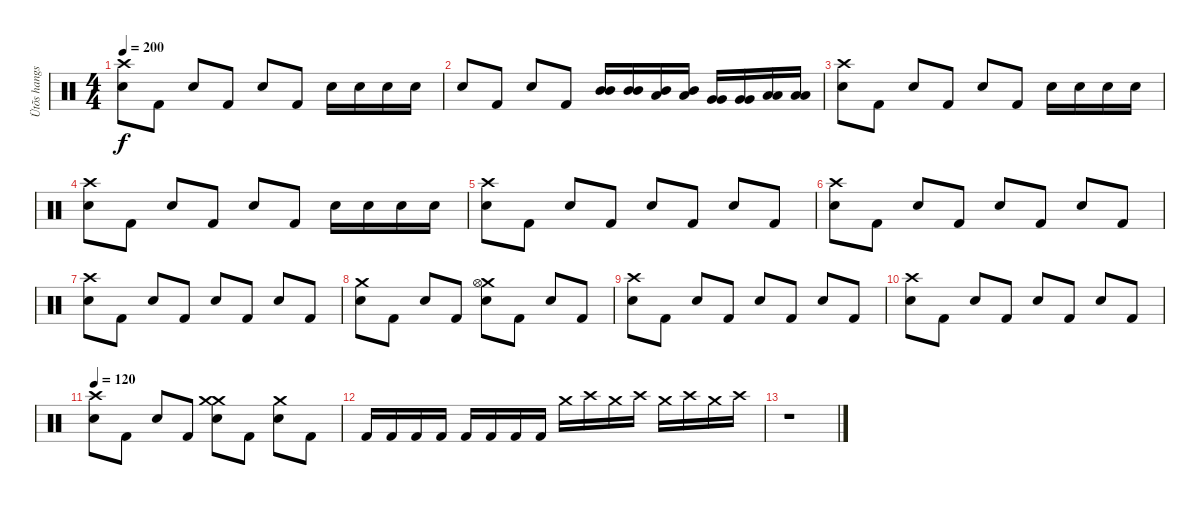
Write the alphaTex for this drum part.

\track ("Ütõs hangszer" "Ütõs hangs") {instrument percussion}
\staff {score}
\articulation defaults
\ts (4 4)
\tempo 200
\clef neutral
\ks c
("Snare (hit) 2" "Crash high (hit)").8{dy f} "Kick (hit) 2".8 "Snare (hit) 2".8 "Kick (hit) 2".8 "Snare (hit) 2".8 "Kick (hit) 2".8 "Snare (hit) 2".16 "Snare (hit) 2".16 "Snare (hit) 2".16 "Snare (hit) 2".16 |
"Snare (hit) 2".8 "Kick (hit) 2".8 "Snare (hit) 2".8 "Kick (hit) 2".8 ("Mid Tom (hit)" "Mid Tom (hit)").16 ("Mid Tom (hit)" "Mid Tom (hit)").16 ("Low Tom (hit)" "Mid Tom (hit)").16 ("Low Tom (hit)" "Mid Tom (hit)").16 ("Very Low Tom (hit)" "Very Low Tom (hit)").16 ("Very Low Tom (hit)" "Very Low Tom (hit)").16 ("Low Floor Tom (hit)" "Low Floor Tom (hit)").16 ("Low Floor Tom (hit)" "Low Floor Tom (hit)").16 |
("Snare (hit) 2" "Crash high (hit)").8 "Kick (hit) 2".8 "Snare (hit) 2".8 "Kick (hit) 2".8 "Snare (hit) 2".8 "Kick (hit) 2".8 "Snare (hit) 2".16 "Snare (hit) 2".16 "Snare (hit) 2".16 "Snare (hit) 2".16 |
("Snare (hit) 2" "Crash high (hit)").8 "Kick (hit) 2".8 "Snare (hit) 2".8 "Kick (hit) 2".8 "Snare (hit) 2".8 "Kick (hit) 2".8 "Snare (hit) 2".16 "Snare (hit) 2".16 "Snare (hit) 2".16 "Snare (hit) 2".16 |
("Snare (hit) 2" "Crash high (hit)").8 "Kick (hit) 2".8 "Snare (hit) 2".8 "Kick (hit) 2".8 "Snare (hit) 2".8 "Kick (hit) 2".8 "Snare (hit) 2".8 "Kick (hit) 2".8 |
("Snare (hit) 2" "Crash high (hit)").8 "Kick (hit) 2".8 "Snare (hit) 2".8 "Kick (hit) 2".8 "Snare (hit) 2".8 "Kick (hit) 2".8 "Snare (hit) 2".8 "Kick (hit) 2".8 |
("Snare (hit) 2" "Crash high (hit)").8 "Kick (hit) 2".8 "Snare (hit) 2".8 "Kick (hit) 2".8 "Snare (hit) 2".8 "Kick (hit) 2".8 "Snare (hit) 2".8 "Kick (hit) 2".8 |
("Snare (hit) 2" "Crash medium (hit)").8 "Kick (hit) 2".8 "Snare (hit) 2".8 "Kick (hit) 2".8 ("Crash medium (hit)" "Snare (hit) 2" "Hi-Hat (open)").8 "Kick (hit) 2".8 "Snare (hit) 2".8 "Kick (hit) 2".8 |
("Snare (hit) 2" "Crash high (hit)").8 "Kick (hit) 2".8 "Snare (hit) 2".8 "Kick (hit) 2".8 "Snare (hit) 2".8 "Kick (hit) 2".8 "Snare (hit) 2".8 "Kick (hit) 2".8 |
("Snare (hit) 2" "Crash high (hit)").8 "Kick (hit) 2".8 "Snare (hit) 2".8 "Kick (hit) 2".8 "Snare (hit) 2".8 "Kick (hit) 2".8 "Snare (hit) 2".8 "Kick (hit) 2".8 |
\tempo 120
("Snare (hit) 2" "Crash high (hit)").8 "Kick (hit) 2".8 "Snare (hit) 2".8 "Kick (hit) 2".8 ("Crash medium (hit)" "Snare (hit) 2" "Crash medium (hit)").8 "Kick (hit) 2".8 ("Snare (hit) 2" "Crash medium (hit)").8 "Kick (hit) 2".8 |
"Kick (hit) 2".16 "Kick (hit) 2".16 "Kick (hit) 2".16 "Kick (hit) 2".16 "Kick (hit) 2".16 "Kick (hit) 2".16 "Kick (hit) 2".16 "Kick (hit) 2".16 "Crash medium (hit)".16 "Crash high (hit)".16 "Crash medium (hit)".16 "Crash high (hit)".16 "Crash medium (hit)".16 "Crash high (hit)".16 "Crash medium (hit)".16 "Crash high (hit)".16 |
r.1
